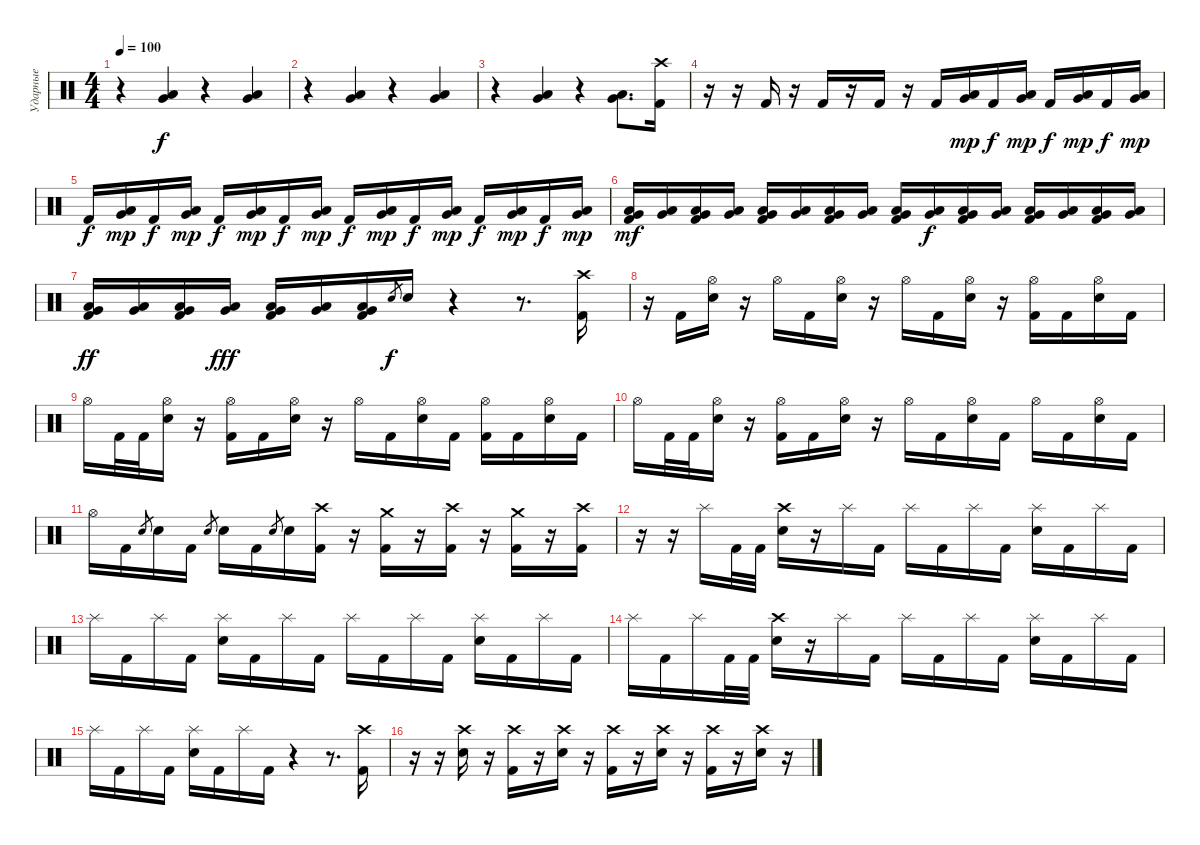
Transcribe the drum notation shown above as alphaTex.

\track ("Ударные" "Ударные") {instrument percussion}
\staff {score}
\articulation defaults
\ts (4 4)
\tempo 100
\clef neutral
\ks c
r.4{dy f} ("Very Low Tom (hit)" "Low Tom (hit)").4 r.4 ("Very Low Tom (hit)" "Low Tom (hit)").4 |
r.4 ("Very Low Tom (hit)" "Low Tom (hit)").4 r.4 ("Very Low Tom (hit)" "Low Tom (hit)").4 |
r.4 ("Very Low Tom (hit)" "Low Tom (hit)").4 r.4 ("Very Low Tom (hit)" "Low Tom (hit)").8{d} ("Crash high (hit)" "Kick (hit) 2").16 |
r.16 r.16 "Kick (hit) 2".16 r.16 "Kick (hit) 2".16 r.16 "Kick (hit) 2".16 r.16 "Kick (hit) 2".16 ("Very Low Tom (hit)" "Low Tom (hit)").16{dy mp} "Kick (hit) 2".16{dy f} ("Very Low Tom (hit)" "Low Tom (hit)").16{dy mp} "Kick (hit) 2".16{dy f} ("Very Low Tom (hit)" "Low Tom (hit)").16{dy mp} "Kick (hit) 2".16{dy f} ("Very Low Tom (hit)" "Low Tom (hit)").16{dy mp} |
"Kick (hit) 2".16{dy f} ("Very Low Tom (hit)" "Low Tom (hit)").16{dy mp} "Kick (hit) 2".16{dy f} ("Very Low Tom (hit)" "Low Tom (hit)").16{dy mp} "Kick (hit) 2".16{dy f} ("Very Low Tom (hit)" "Low Tom (hit)").16{dy mp} "Kick (hit) 2".16{dy f} ("Very Low Tom (hit)" "Low Tom (hit)").16{dy mp} "Kick (hit) 2".16{dy f} ("Very Low Tom (hit)" "Low Tom (hit)").16{dy mp} "Kick (hit) 2".16{dy f} ("Very Low Tom (hit)" "Low Tom (hit)").16{dy mp} "Kick (hit) 2".16{dy f} ("Very Low Tom (hit)" "Low Tom (hit)").16{dy mp} "Kick (hit) 2".16{dy f} ("Very Low Tom (hit)" "Low Tom (hit)").16{dy mp} |
("Very Low Tom (hit)" "Low Tom (hit)" "Kick (hit) 2").16{dy mf} ("Very Low Tom (hit)" "Low Tom (hit)").16 ("Very Low Tom (hit)" "Low Tom (hit)" "Kick (hit) 2").16 ("Very Low Tom (hit)" "Low Tom (hit)").16 ("Very Low Tom (hit)" "Low Tom (hit)" "Kick (hit) 2").16 ("Very Low Tom (hit)" "Low Tom (hit)").16 ("Very Low Tom (hit)" "Low Tom (hit)" "Kick (hit) 2").16 ("Very Low Tom (hit)" "Low Tom (hit)").16 ("Very Low Tom (hit)" "Low Tom (hit)" "Kick (hit) 2").16 ("Very Low Tom (hit)" "Low Tom (hit)").16{dy f} ("Very Low Tom (hit)" "Low Tom (hit)" "Kick (hit) 2").16 ("Very Low Tom (hit)" "Low Tom (hit)").16 ("Very Low Tom (hit)" "Low Tom (hit)" "Kick (hit) 2").16 ("Very Low Tom (hit)" "Low Tom (hit)").16 ("Very Low Tom (hit)" "Low Tom (hit)" "Kick (hit) 2").16 ("Very Low Tom (hit)" "Low Tom (hit)").16 |
("Very Low Tom (hit)" "Low Tom (hit)" "Kick (hit) 2").16{dy ff} ("Very Low Tom (hit)" "Low Tom (hit)").16 ("Very Low Tom (hit)" "Low Tom (hit)" "Kick (hit) 2").16 ("Very Low Tom (hit)" "Low Tom (hit)").16{dy fff} ("Very Low Tom (hit)" "Low Tom (hit)" "Kick (hit) 2").16 ("Very Low Tom (hit)" "Low Tom (hit)").16 ("Very Low Tom (hit)" "Low Tom (hit)" "Kick (hit) 2").16 "Electric Snare (hit)".8{gr dy f} "Electric Snare (hit)".16 r.4 r.8{d} ("Crash high (hit)" "Kick (hit) 2").16 |
r.16 "Kick (hit) 2".16 ("Hi-Hat (open)" "Electric Snare (hit)").16 r.16 "Hi-Hat (open)".16 "Kick (hit) 2".16 ("Hi-Hat (open)" "Electric Snare (hit)").16 r.16 "Hi-Hat (open)".16 "Kick (hit) 2".16 ("Hi-Hat (open)" "Electric Snare (hit)").16 r.16 ("Hi-Hat (open)" "Kick (hit) 2").16 "Kick (hit) 2".16 ("Hi-Hat (open)" "Electric Snare (hit)").16 "Kick (hit) 2".16 |
"Hi-Hat (open)".16 "Kick (hit) 2".32 "Kick (hit) 2".32 ("Hi-Hat (open)" "Electric Snare (hit)").16 r.16 ("Hi-Hat (open)" "Kick (hit) 2").16 "Kick (hit) 2".16 ("Hi-Hat (open)" "Electric Snare (hit)").16 r.16 "Hi-Hat (open)".16 "Kick (hit) 2".16 ("Hi-Hat (open)" "Electric Snare (hit)").16 "Kick (hit) 2".16 ("Hi-Hat (open)" "Kick (hit) 2").16 "Kick (hit) 2".16 ("Hi-Hat (open)" "Electric Snare (hit)").16 "Kick (hit) 2".16 |
"Hi-Hat (open)".16 "Kick (hit) 2".32 "Kick (hit) 2".32 ("Hi-Hat (open)" "Electric Snare (hit)").16 r.16 ("Hi-Hat (open)" "Kick (hit) 2").16 "Kick (hit) 2".16 ("Hi-Hat (open)" "Electric Snare (hit)").16 r.16 "Hi-Hat (open)".16 "Kick (hit) 2".16 ("Hi-Hat (open)" "Electric Snare (hit)").16 "Kick (hit) 2".16 "Hi-Hat (open)".16 "Kick (hit) 2".16 ("Hi-Hat (open)" "Electric Snare (hit)").16 "Kick (hit) 2".16 |
"Hi-Hat (open)".16 "Kick (hit) 2".16 "Electric Snare (hit)".8{gr} "Electric Snare (hit)".16 "Kick (hit) 2".16 "Electric Snare (hit)".8{gr} "Electric Snare (hit)".16 "Kick (hit) 2".16 "Electric Snare (hit)".8{gr} "Electric Snare (hit)".16 ("Crash high (hit)" "Kick (hit) 2").16 r.16 ("Crash medium (hit)" "Kick (hit) 2").16 r.16 ("Crash high (hit)" "Kick (hit) 2").16 r.16 ("Crash medium (hit)" "Kick (hit) 2").16 r.16 ("Crash high (hit)" "Kick (hit) 2").16 |
r.16 r.16 "Splash (hit)".16 "Kick (hit) 2".32 "Kick (hit) 2".32 ("Crash high (hit)" "Electric Snare (hit)").16 r.16 "Splash (hit)".16 "Kick (hit) 2".16 "Splash (hit)".16 "Kick (hit) 2".16 "Splash (hit)".16 "Kick (hit) 2".16 ("Splash (hit)" "Electric Snare (hit)").16 "Kick (hit) 2".16 "Splash (hit)".16 "Kick (hit) 2".16 |
"Splash (hit)".16 "Kick (hit) 2".16 "Splash (hit)".16 "Kick (hit) 2".16 ("Splash (hit)" "Electric Snare (hit)").16 "Kick (hit) 2".16 "Splash (hit)".16 "Kick (hit) 2".16 "Splash (hit)".16 "Kick (hit) 2".16 "Splash (hit)".16 "Kick (hit) 2".16 ("Splash (hit)" "Electric Snare (hit)").16 "Kick (hit) 2".16 "Splash (hit)".16 "Kick (hit) 2".16 |
"Splash (hit)".16 "Kick (hit) 2".16 "Splash (hit)".16 "Kick (hit) 2".32 "Kick (hit) 2".32 ("Crash high (hit)" "Electric Snare (hit)").16 r.16 "Splash (hit)".16 "Kick (hit) 2".16 "Splash (hit)".16 "Kick (hit) 2".16 "Splash (hit)".16 "Kick (hit) 2".16 ("Splash (hit)" "Electric Snare (hit)").16 "Kick (hit) 2".16 "Splash (hit)".16 "Kick (hit) 2".16 |
"Splash (hit)".16 "Kick (hit) 2".16 "Splash (hit)".16 "Kick (hit) 2".16 ("Splash (hit)" "Electric Snare (hit)").16 "Kick (hit) 2".16 "Splash (hit)".16 "Kick (hit) 2".16 r.4 r.8{d} ("Crash high (hit)" "Kick (hit) 2").16 |
r.16 r.16 ("Crash high (hit)" "Electric Snare (hit)").16 r.16 ("Crash high (hit)" "Kick (hit) 2").16 r.16 ("Crash high (hit)" "Electric Snare (hit)").16 r.16 ("Crash high (hit)" "Kick (hit) 2").16 r.16 ("Crash high (hit)" "Electric Snare (hit)").16 r.16 ("Crash high (hit)" "Kick (hit) 2").16 r.16 ("Crash high (hit)" "Electric Snare (hit)").16 r.16
